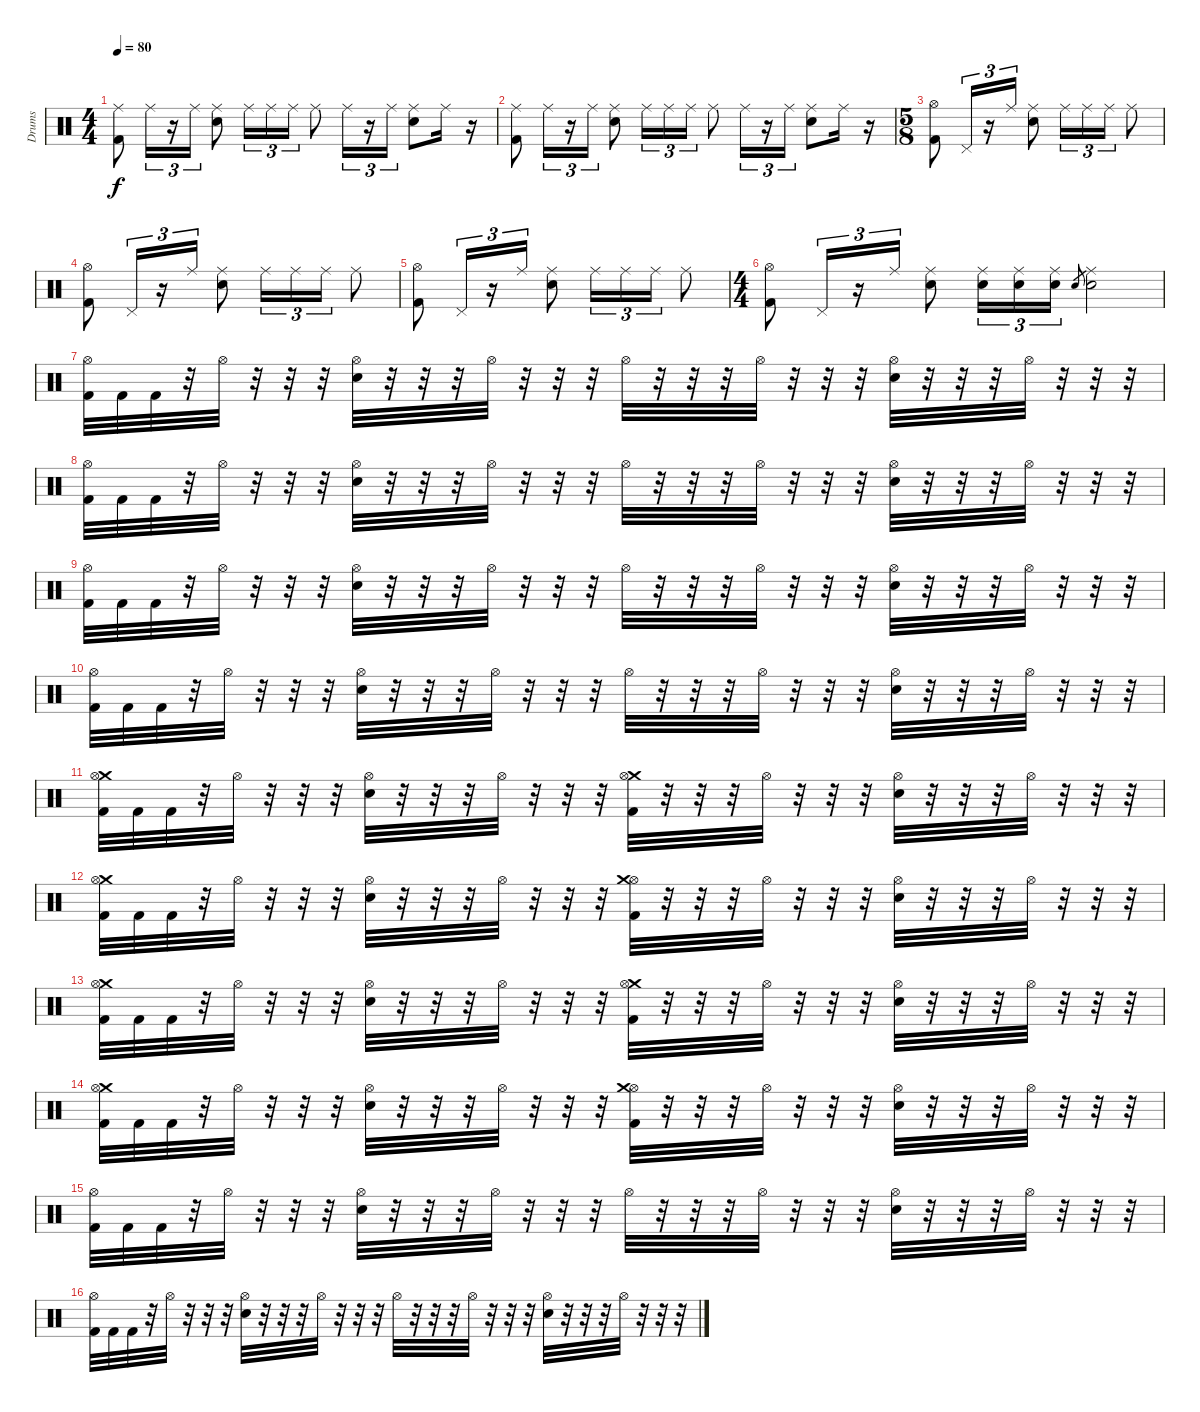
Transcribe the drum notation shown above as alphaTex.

\track ("Drums" "Drums") {instrument percussion}
\staff {score}
\articulation defaults
\ts (4 4)
\tempo 80
\clef neutral
\ks c
("Ride (middle)" "Kick (hit) 2").8{dy f} "Ride (middle)".16{tu (3 2)} r.16{tu (3 2)} "Ride (middle)".16{tu (3 2)} ("Ride (middle)" "Electric Snare (hit)").8 "Ride (middle)".16{tu (3 2)} "Ride (middle)".16{tu (3 2)} "Ride (middle)".16{tu (3 2)} "Ride (middle)".8 "Ride (middle)".16{tu (3 2)} r.16{tu (3 2)} "Ride (middle)".16{tu (3 2)} ("Ride (middle)" "Electric Snare (hit)").8 "Ride (middle)".16 r.16 |
("Ride (middle)" "Kick (hit) 2").8 "Ride (middle)".16{tu (3 2)} r.16{tu (3 2)} "Ride (middle)".16{tu (3 2)} ("Ride (middle)" "Electric Snare (hit)").8 "Ride (middle)".16{tu (3 2)} "Ride (middle)".16{tu (3 2)} "Ride (middle)".16{tu (3 2)} "Ride (middle)".8 "Ride (middle)".16{tu (3 2)} r.16{tu (3 2)} "Ride (middle)".16{tu (3 2)} ("Ride (middle)" "Electric Snare (hit)").8 "Ride (middle)".16 r.16 |
\ts (5 8)
("Hi-Hat (open)" "Kick (hit) 2").8 "Pedal Hi-Hat (hit)".16{tu (3 2)} r.16{tu (3 2)} "Ride (middle)".16{tu (3 2)} ("Ride (middle)" "Electric Snare (hit)").8 "Ride (middle)".16{tu (3 2)} "Ride (middle)".16{tu (3 2)} "Ride (middle)".16{tu (3 2)} "Ride (middle)".8 |
("Hi-Hat (open)" "Kick (hit) 2").8 "Pedal Hi-Hat (hit)".16{tu (3 2)} r.16{tu (3 2)} "Ride (middle)".16{tu (3 2)} ("Ride (middle)" "Electric Snare (hit)").8 "Ride (middle)".16{tu (3 2)} "Ride (middle)".16{tu (3 2)} "Ride (middle)".16{tu (3 2)} "Ride (middle)".8 |
("Hi-Hat (open)" "Kick (hit) 2").8 "Pedal Hi-Hat (hit)".16{tu (3 2)} r.16{tu (3 2)} "Ride (middle)".16{tu (3 2)} ("Ride (middle)" "Electric Snare (hit)").8 "Ride (middle)".16{tu (3 2)} "Ride (middle)".16{tu (3 2)} "Ride (middle)".16{tu (3 2)} "Ride (middle)".8 |
\ts (4 4)
("Hi-Hat (open)" "Kick (hit) 2").8 "Pedal Hi-Hat (hit)".16{tu (3 2)} r.16{tu (3 2)} "Ride (middle)".16{tu (3 2)} ("Ride (middle)" "Electric Snare (hit)").8 ("Ride (middle)" "Electric Snare (hit)").16{tu (3 2)} ("Ride (middle)" "Electric Snare (hit)").16{tu (3 2)} ("Ride (middle)" "Electric Snare (hit)").16{tu (3 2)} "Electric Snare (hit)".8{gr} ("Ride (middle)" "Electric Snare (hit)").2 |
("Hi-Hat (open)" "Kick (hit) 2").32 "Kick (hit) 2".32 "Kick (hit) 2".32 r.32 "Hi-Hat (open)".32 r.32 r.32 r.32 ("Hi-Hat (open)" "Electric Snare (hit)").32 r.32 r.32 r.32 "Hi-Hat (open)".32 r.32 r.32 r.32 "Hi-Hat (open)".32 r.32 r.32 r.32 "Hi-Hat (open)".32 r.32 r.32 r.32 ("Hi-Hat (open)" "Electric Snare (hit)").32 r.32 r.32 r.32 "Hi-Hat (open)".32 r.32 r.32 r.32 |
("Hi-Hat (open)" "Kick (hit) 2").32 "Kick (hit) 2".32 "Kick (hit) 2".32 r.32 "Hi-Hat (open)".32 r.32 r.32 r.32 ("Hi-Hat (open)" "Electric Snare (hit)").32 r.32 r.32 r.32 "Hi-Hat (open)".32 r.32 r.32 r.32 "Hi-Hat (open)".32 r.32 r.32 r.32 "Hi-Hat (open)".32 r.32 r.32 r.32 ("Hi-Hat (open)" "Electric Snare (hit)").32 r.32 r.32 r.32 "Hi-Hat (open)".32 r.32 r.32 r.32 |
("Hi-Hat (open)" "Kick (hit) 2").32 "Kick (hit) 2".32 "Kick (hit) 2".32 r.32 "Hi-Hat (open)".32 r.32 r.32 r.32 ("Hi-Hat (open)" "Electric Snare (hit)").32 r.32 r.32 r.32 "Hi-Hat (open)".32 r.32 r.32 r.32 "Hi-Hat (open)".32 r.32 r.32 r.32 "Hi-Hat (open)".32 r.32 r.32 r.32 ("Hi-Hat (open)" "Electric Snare (hit)").32 r.32 r.32 r.32 "Hi-Hat (open)".32 r.32 r.32 r.32 |
("Hi-Hat (open)" "Kick (hit) 2").32 "Kick (hit) 2".32 "Kick (hit) 2".32 r.32 "Hi-Hat (open)".32 r.32 r.32 r.32 ("Hi-Hat (open)" "Electric Snare (hit)").32 r.32 r.32 r.32 "Hi-Hat (open)".32 r.32 r.32 r.32 "Hi-Hat (open)".32 r.32 r.32 r.32 "Hi-Hat (open)".32 r.32 r.32 r.32 ("Hi-Hat (open)" "Electric Snare (hit)").32 r.32 r.32 r.32 "Hi-Hat (open)".32 r.32 r.32 r.32 |
("Crash medium (hit)" "Hi-Hat (open)" "Kick (hit) 2").32 "Kick (hit) 2".32 "Kick (hit) 2".32 r.32 "Hi-Hat (open)".32 r.32 r.32 r.32 ("Hi-Hat (open)" "Electric Snare (hit)").32 r.32 r.32 r.32 "Hi-Hat (open)".32 r.32 r.32 r.32 ("Crash medium (hit)" "Hi-Hat (open)" "Kick (hit) 2").32 r.32 r.32 r.32 "Hi-Hat (open)".32 r.32 r.32 r.32 ("Hi-Hat (open)" "Electric Snare (hit)").32 r.32 r.32 r.32 "Hi-Hat (open)".32 r.32 r.32 r.32 |
("Crash medium (hit)" "Hi-Hat (open)" "Kick (hit) 2").32 "Kick (hit) 2".32 "Kick (hit) 2".32 r.32 "Hi-Hat (open)".32 r.32 r.32 r.32 ("Hi-Hat (open)" "Electric Snare (hit)").32 r.32 r.32 r.32 "Hi-Hat (open)".32 r.32 r.32 r.32 ("Hi-Hat (open)" "Crash medium (hit)" "Kick (hit) 2").32 r.32 r.32 r.32 "Hi-Hat (open)".32 r.32 r.32 r.32 ("Hi-Hat (open)" "Electric Snare (hit)").32 r.32 r.32 r.32 "Hi-Hat (open)".32 r.32 r.32 r.32 |
("Crash medium (hit)" "Hi-Hat (open)" "Kick (hit) 2").32 "Kick (hit) 2".32 "Kick (hit) 2".32 r.32 "Hi-Hat (open)".32 r.32 r.32 r.32 ("Hi-Hat (open)" "Electric Snare (hit)").32 r.32 r.32 r.32 "Hi-Hat (open)".32 r.32 r.32 r.32 ("Crash medium (hit)" "Hi-Hat (open)" "Kick (hit) 2").32 r.32 r.32 r.32 "Hi-Hat (open)".32 r.32 r.32 r.32 ("Hi-Hat (open)" "Electric Snare (hit)").32 r.32 r.32 r.32 "Hi-Hat (open)".32 r.32 r.32 r.32 |
("Crash medium (hit)" "Hi-Hat (open)" "Kick (hit) 2").32 "Kick (hit) 2".32 "Kick (hit) 2".32 r.32 "Hi-Hat (open)".32 r.32 r.32 r.32 ("Hi-Hat (open)" "Electric Snare (hit)").32 r.32 r.32 r.32 "Hi-Hat (open)".32 r.32 r.32 r.32 ("Hi-Hat (open)" "Crash medium (hit)" "Kick (hit) 2").32 r.32 r.32 r.32 "Hi-Hat (open)".32 r.32 r.32 r.32 ("Hi-Hat (open)" "Electric Snare (hit)").32 r.32 r.32 r.32 "Hi-Hat (open)".32 r.32 r.32 r.32 |
("Hi-Hat (open)" "Kick (hit) 2").32 "Kick (hit) 2".32 "Kick (hit) 2".32 r.32 "Hi-Hat (open)".32 r.32 r.32 r.32 ("Hi-Hat (open)" "Electric Snare (hit)").32 r.32 r.32 r.32 "Hi-Hat (open)".32 r.32 r.32 r.32 "Hi-Hat (open)".32 r.32 r.32 r.32 "Hi-Hat (open)".32 r.32 r.32 r.32 ("Hi-Hat (open)" "Electric Snare (hit)").32 r.32 r.32 r.32 "Hi-Hat (open)".32 r.32 r.32 r.32 |
("Hi-Hat (open)" "Kick (hit) 2").32 "Kick (hit) 2".32 "Kick (hit) 2".32 r.32 "Hi-Hat (open)".32 r.32 r.32 r.32 ("Hi-Hat (open)" "Electric Snare (hit)").32 r.32 r.32 r.32 "Hi-Hat (open)".32 r.32 r.32 r.32 "Hi-Hat (open)".32 r.32 r.32 r.32 "Hi-Hat (open)".32 r.32 r.32 r.32 ("Hi-Hat (open)" "Electric Snare (hit)").32 r.32 r.32 r.32 "Hi-Hat (open)".32 r.32 r.32 r.32
